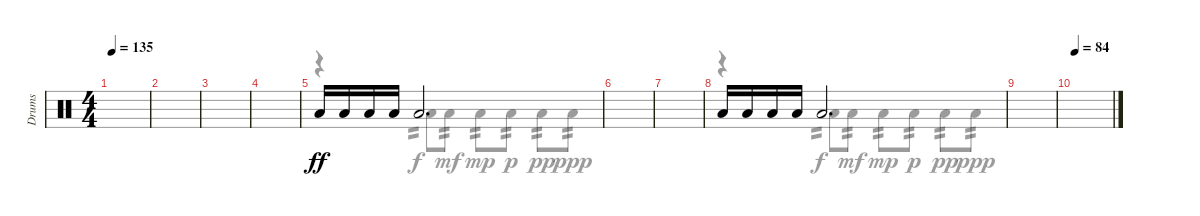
\track ("Drums" "Drums") {instrument percussion}
\staff {score}
\articulation defaults
\voice
\ts (4 4)
\tempo 135
\clef neutral
\ks c
|
|
|
|
"Low Tom (hit)".16{dy ff} "Low Tom (hit)".16 "Low Tom (hit)".16 "Low Tom (hit)".16 "Low Tom (hit)".2{d} |
|
|
"Low Tom (hit)".16 "Low Tom (hit)".16 "Low Tom (hit)".16 "Low Tom (hit)".16 "Low Tom (hit)".2{d} |
|
\tempo 84
|
|
\voice
\clef neutral
\ottava regular
\simile none
\ks c
|
|
|
|
r.4 "Low Tom (hit)".8{tp 2 dy f} "Low Tom (hit)".8{tp 2 dy mf} "Low Tom (hit)".8{tp 2 dy mp} "Low Tom (hit)".8{tp 2 dy p} "Low Tom (hit)".8{tp 2 dy pp} "Low Tom (hit)".8{tp 2 dy ppp} |
|
|
r.4 "Low Tom (hit)".8{tp 2 dy f} "Low Tom (hit)".8{tp 2 dy mf} "Low Tom (hit)".8{tp 2 dy mp} "Low Tom (hit)".8{tp 2 dy p} "Low Tom (hit)".8{tp 2 dy pp} "Low Tom (hit)".8{tp 2 dy ppp} |
|
|
|
